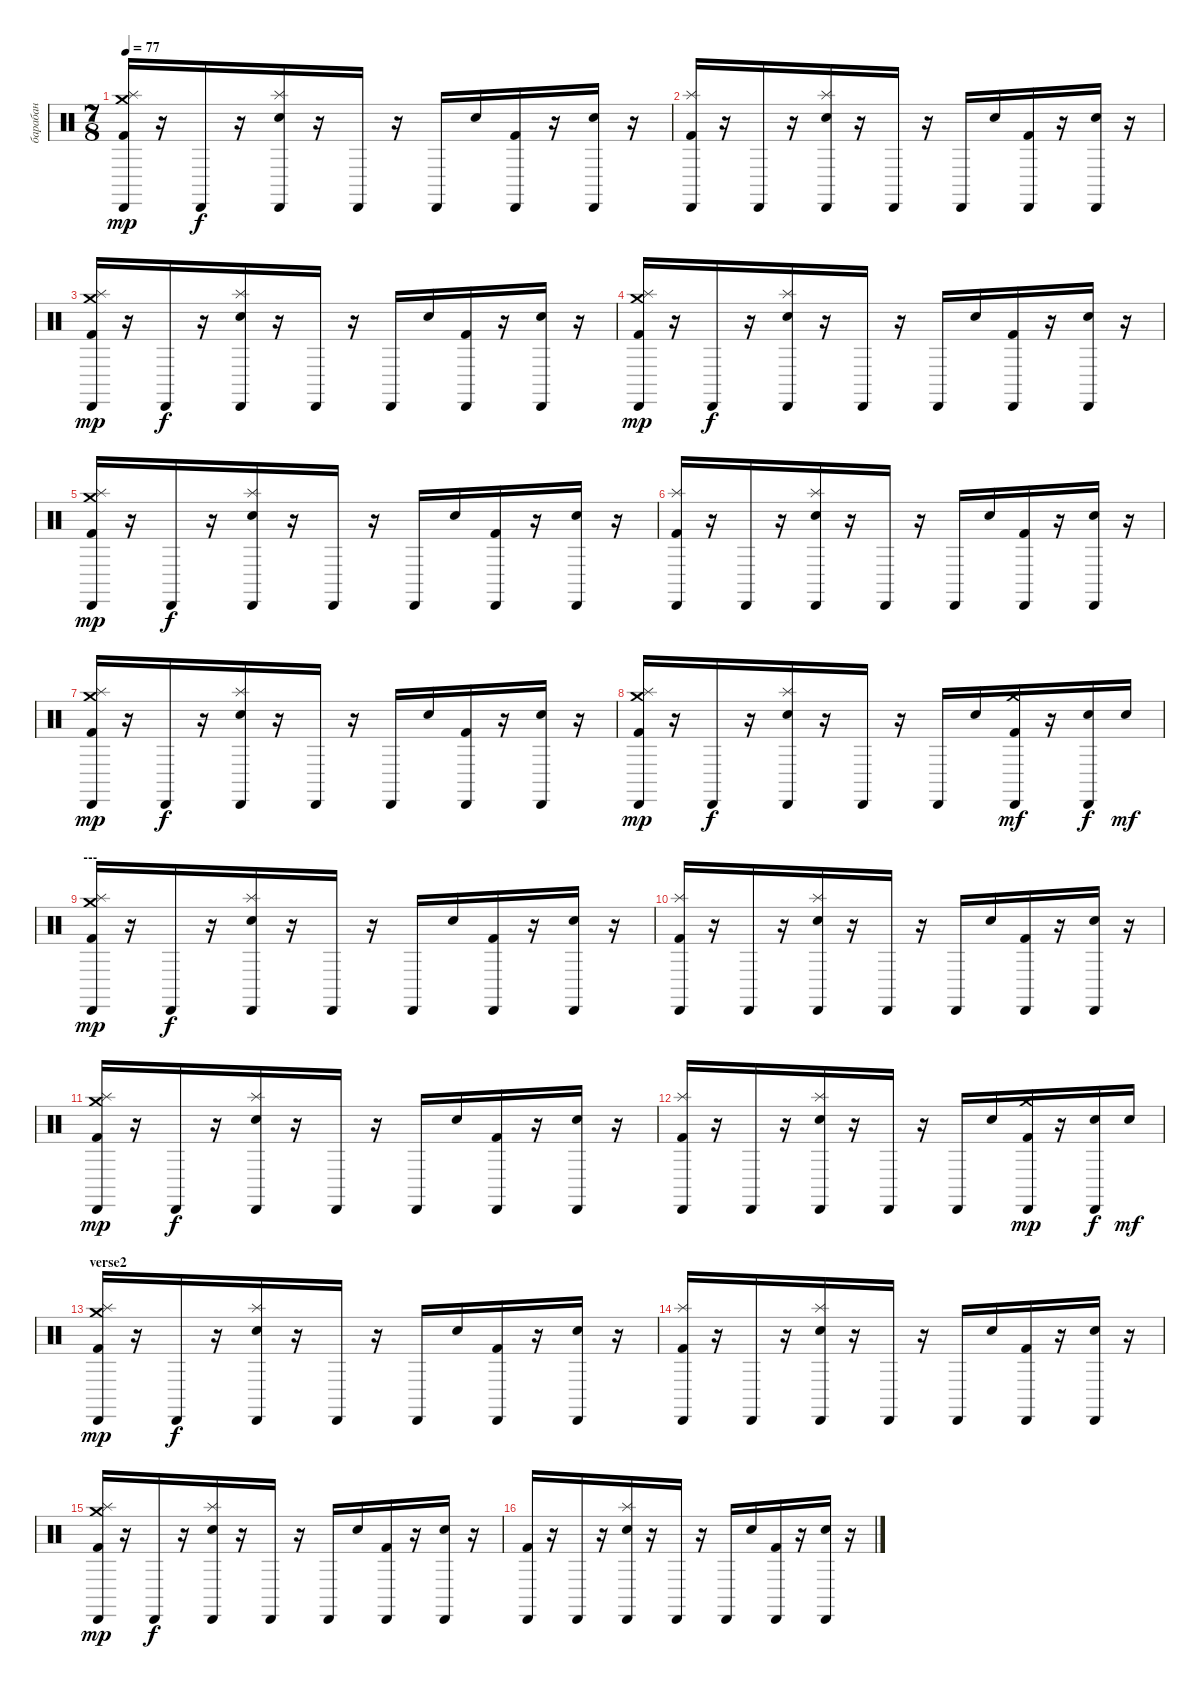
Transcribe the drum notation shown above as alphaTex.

\track ("барабан" "барабан") {instrument percussion}
\staff {score}
\articulation defaults
\ts (7 8)
\tempo 77
\clef neutral
\ks c
("Cabasa (hit)" "Splash (hit)" "Crash medium (hit)" "Kick (hit) 2").16{dy mp} r.16 "Cabasa (hit)".16{dy f} r.16 ("Cabasa (hit)" "Splash (hit)" "Electric Snare (hit)").16 r.16 "Cabasa (hit)".16 r.16 "Cabasa (hit)".16 "Electric Snare (hit)".16 ("Cabasa (hit)" "Kick (hit) 2").16 r.16 ("Cabasa (hit)" "Electric Snare (hit)").16 r.16 |
("Cabasa (hit)" "Splash (hit)" "Kick (hit) 2").16 r.16 "Cabasa (hit)".16 r.16 ("Cabasa (hit)" "Splash (hit)" "Electric Snare (hit)").16 r.16 "Cabasa (hit)".16 r.16 "Cabasa (hit)".16 "Electric Snare (hit)".16 ("Cabasa (hit)" "Kick (hit) 2").16 r.16 ("Cabasa (hit)" "Electric Snare (hit)").16 r.16 |
("Cabasa (hit)" "Splash (hit)" "Crash medium (hit)" "Kick (hit) 2").16{dy mp} r.16 "Cabasa (hit)".16{dy f} r.16 ("Cabasa (hit)" "Splash (hit)" "Electric Snare (hit)").16 r.16 "Cabasa (hit)".16 r.16 "Cabasa (hit)".16 "Electric Snare (hit)".16 ("Cabasa (hit)" "Kick (hit) 2").16 r.16 ("Cabasa (hit)" "Electric Snare (hit)").16 r.16 |
("Cabasa (hit)" "Splash (hit)" "Crash medium (hit)" "Kick (hit) 2").16{dy mp} r.16 "Cabasa (hit)".16{dy f} r.16 ("Cabasa (hit)" "Splash (hit)" "Electric Snare (hit)").16 r.16 "Cabasa (hit)".16 r.16 "Cabasa (hit)".16 "Electric Snare (hit)".16 ("Cabasa (hit)" "Kick (hit) 2").16 r.16 ("Cabasa (hit)" "Electric Snare (hit)").16 r.16 |
("Cabasa (hit)" "Splash (hit)" "Crash medium (hit)" "Kick (hit) 2").16{dy mp} r.16 "Cabasa (hit)".16{dy f} r.16 ("Cabasa (hit)" "Splash (hit)" "Electric Snare (hit)").16 r.16 "Cabasa (hit)".16 r.16 "Cabasa (hit)".16 "Electric Snare (hit)".16 ("Cabasa (hit)" "Kick (hit) 2").16 r.16 ("Cabasa (hit)" "Electric Snare (hit)").16 r.16 |
("Cabasa (hit)" "Splash (hit)" "Kick (hit) 2").16 r.16 "Cabasa (hit)".16 r.16 ("Cabasa (hit)" "Splash (hit)" "Electric Snare (hit)").16 r.16 "Cabasa (hit)".16 r.16 "Cabasa (hit)".16 "Electric Snare (hit)".16 ("Cabasa (hit)" "Kick (hit) 2").16 r.16 ("Cabasa (hit)" "Electric Snare (hit)").16 r.16 |
("Cabasa (hit)" "Splash (hit)" "Crash medium (hit)" "Kick (hit) 2").16{dy mp} r.16 "Cabasa (hit)".16{dy f} r.16 ("Cabasa (hit)" "Splash (hit)" "Electric Snare (hit)").16 r.16 "Cabasa (hit)".16 r.16 "Cabasa (hit)".16 "Electric Snare (hit)".16 ("Cabasa (hit)" "Kick (hit) 2").16 r.16 ("Cabasa (hit)" "Electric Snare (hit)").16 r.16 |
("Cabasa (hit)" "Splash (hit)" "Crash medium (hit)" "Kick (hit) 2").16{dy mp} r.16 "Cabasa (hit)".16{dy f} r.16 ("Cabasa (hit)" "Splash (hit)" "Electric Snare (hit)").16 r.16 "Cabasa (hit)".16 r.16 "Cabasa (hit)".16 "Electric Snare (hit)".16 ("Cabasa (hit)" "Crash medium (hit)" "Kick (hit) 2").16{dy mf} r.16 ("Cabasa (hit)" "Electric Snare (hit)").16{dy f} "Electric Snare (hit)".16{dy mf} |
\section ("" "---")
("Cabasa (hit)" "Splash (hit)" "Crash medium (hit)" "Kick (hit) 2").16{dy mp} r.16 "Cabasa (hit)".16{dy f} r.16 ("Cabasa (hit)" "Splash (hit)" "Electric Snare (hit)").16 r.16 "Cabasa (hit)".16 r.16 "Cabasa (hit)".16 "Electric Snare (hit)".16 ("Cabasa (hit)" "Kick (hit) 2").16 r.16 ("Cabasa (hit)" "Electric Snare (hit)").16 r.16 |
("Cabasa (hit)" "Splash (hit)" "Kick (hit) 2").16 r.16 "Cabasa (hit)".16 r.16 ("Cabasa (hit)" "Splash (hit)" "Electric Snare (hit)").16 r.16 "Cabasa (hit)".16 r.16 "Cabasa (hit)".16 "Electric Snare (hit)".16 ("Cabasa (hit)" "Kick (hit) 2").16 r.16 ("Cabasa (hit)" "Electric Snare (hit)").16 r.16 |
("Cabasa (hit)" "Splash (hit)" "Crash medium (hit)" "Kick (hit) 2").16{dy mp} r.16 "Cabasa (hit)".16{dy f} r.16 ("Cabasa (hit)" "Splash (hit)" "Electric Snare (hit)").16 r.16 "Cabasa (hit)".16 r.16 "Cabasa (hit)".16 "Electric Snare (hit)".16 ("Cabasa (hit)" "Kick (hit) 2").16 r.16 ("Cabasa (hit)" "Electric Snare (hit)").16 r.16 |
("Cabasa (hit)" "Splash (hit)" "Kick (hit) 2").16 r.16 "Cabasa (hit)".16 r.16 ("Cabasa (hit)" "Splash (hit)" "Electric Snare (hit)").16 r.16 "Cabasa (hit)".16 r.16 "Cabasa (hit)".16 "Electric Snare (hit)".16 ("Cabasa (hit)" "Crash medium (hit)" "Kick (hit) 2").16{dy mp} r.16 ("Cabasa (hit)" "Electric Snare (hit)").16{dy f} "Electric Snare (hit)".16{dy mf} |
\section ("" "verse2")
("Cabasa (hit)" "Splash (hit)" "Crash medium (hit)" "Kick (hit) 2").16{dy mp} r.16 "Cabasa (hit)".16{dy f} r.16 ("Cabasa (hit)" "Splash (hit)" "Electric Snare (hit)").16 r.16 "Cabasa (hit)".16 r.16 "Cabasa (hit)".16 "Electric Snare (hit)".16 ("Cabasa (hit)" "Kick (hit) 2").16 r.16 ("Cabasa (hit)" "Electric Snare (hit)").16 r.16 |
("Cabasa (hit)" "Splash (hit)" "Kick (hit) 2").16 r.16 "Cabasa (hit)".16 r.16 ("Cabasa (hit)" "Splash (hit)" "Electric Snare (hit)").16 r.16 "Cabasa (hit)".16 r.16 "Cabasa (hit)".16 "Electric Snare (hit)".16 ("Cabasa (hit)" "Kick (hit) 2").16 r.16 ("Cabasa (hit)" "Electric Snare (hit)").16 r.16 |
("Cabasa (hit)" "Splash (hit)" "Crash medium (hit)" "Kick (hit) 2").16{dy mp} r.16 "Cabasa (hit)".16{dy f} r.16 ("Cabasa (hit)" "Splash (hit)" "Electric Snare (hit)").16 r.16 "Cabasa (hit)".16 r.16 "Cabasa (hit)".16 "Electric Snare (hit)".16 ("Cabasa (hit)" "Kick (hit) 2").16 r.16 ("Cabasa (hit)" "Electric Snare (hit)").16 r.16 |
("Cabasa (hit)" "Kick (hit) 2").16 r.16 "Cabasa (hit)".16 r.16 ("Cabasa (hit)" "Splash (hit)" "Electric Snare (hit)").16 r.16 "Cabasa (hit)".16 r.16 "Cabasa (hit)".16 "Electric Snare (hit)".16 ("Cabasa (hit)" "Kick (hit) 2").16 r.16 ("Cabasa (hit)" "Electric Snare (hit)").16 r.16
